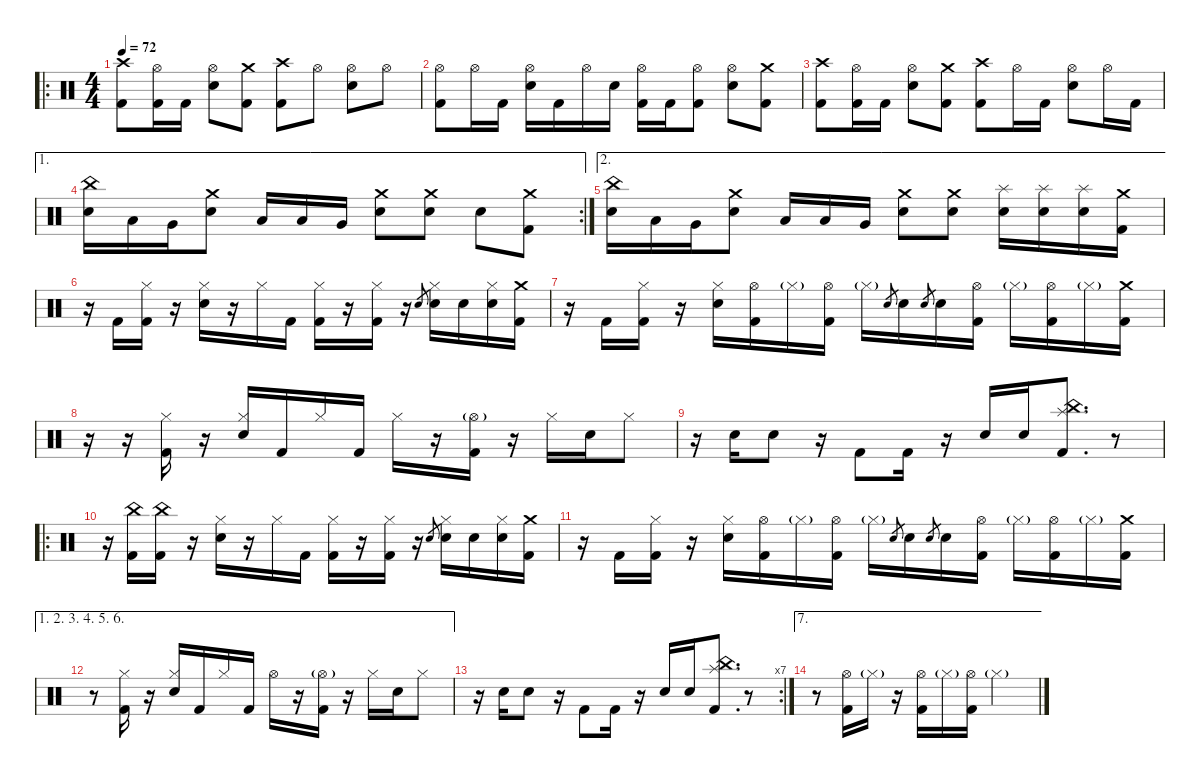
\defaultSystemsLayout 4
\hideDynamics
\bracketExtendMode nobrackets
\singleTrackTrackNamePolicy hidden
\multiTrackTrackNamePolicy hidden
\firstSystemTrackNameMode fullname
\firstSystemTrackNameOrientation horizontal
\otherSystemsTrackNameOrientation horizontal
\track ("Drums" "drm.") {instrument percussion}
\staff {score}
\articulation defaults
\ro
\ts (4 4)
\tempo 72
\clef neutral
\ks c
("Crash high (hit)" "Kick (hit) 2").8{dy f beam Down} ("Hi-Hat (open)" "Kick (hit) 2").16{beam Down} "Kick (hit) 2".16{beam Down} ("Hi-Hat (open)" "Snare (hit) 2").8{beam Down} ("Crash medium (hit)" "Kick (hit) 2").8{beam Down} ("Crash high (hit)" "Kick (hit) 2").8{beam Down} "Hi-Hat (open)".8{beam Down} ("Hi-Hat (open)" "Snare (hit) 2").8{beam Down} "Hi-Hat (open)".8{beam Down} |
("Hi-Hat (open)" "Kick (hit) 2").8{beam Down} "Hi-Hat (open)".16{beam Down} "Kick (hit) 2".16{beam Down} ("Hi-Hat (open)" "Snare (hit) 2").16{beam Down} "Kick (hit) 2".16{beam Down} "Hi-Hat (open)".16{beam Down} "Snare (hit) 2".16{beam Down} ("Hi-Hat (open)" "Kick (hit) 2").16{beam Down} "Kick (hit) 2".16{beam Down} ("Hi-Hat (open)" "Kick (hit) 2").8{beam Down} ("Hi-Hat (open)" "Snare (hit) 2").8{beam Down} ("Crash medium (hit)" "Kick (hit) 2").8{beam Down} |
("Crash high (hit)" "Kick (hit) 2").8{beam Down} ("Hi-Hat (open)" "Kick (hit) 2").16{beam Down} "Kick (hit) 2".16{beam Down} ("Hi-Hat (open)" "Snare (hit) 2").8{beam Down} ("Crash medium (hit)" "Kick (hit) 2").8{beam Down} ("Crash high (hit)" "Kick (hit) 2").8{beam Down} "Hi-Hat (open)".16{beam Down} "Kick (hit) 2".16{beam Down} ("Hi-Hat (open)" "Snare (hit) 2").8{beam Down} "Hi-Hat (open)".16{beam Down} "Kick (hit) 2".16{beam Down} |
\ae 1
\rc 2
("China (hit)" "Snare (hit) 2").16{beam Down} "Low Tom (hit)".16{beam Down} "Very Low Tom (hit)".16{beam Down} ("Crash medium (hit)" "Snare (hit) 2").8{beam Down} "Low Tom (hit)".16{beam Up} "Low Tom (hit)".16{beam Up} "Very Low Tom (hit)".16{beam Up} ("Crash medium (hit)" "Snare (hit) 2").8{beam Down} ("Crash medium (hit)" "Snare (hit) 2").8{beam Down} "Snare (hit) 2".8{beam Down} ("Crash medium (hit)" "Kick (hit) 2").8{beam Down} |
\ae 2
("China (hit)" "Snare (hit) 2").16{beam Down} "Low Tom (hit)".16{beam Down} "Very Low Tom (hit)".16{beam Down} ("Crash medium (hit)" "Snare (hit) 2").8{beam Down} "Low Tom (hit)".16{beam Up} "Low Tom (hit)".16{beam Up} "Very Low Tom (hit)".16{beam Up} ("Crash medium (hit)" "Snare (hit) 2").8{beam Down} ("Crash medium (hit)" "Snare (hit) 2").8{beam Down} ("Splash (hit)" "Snare (hit) 2").16{beam Down} ("Splash (hit)" "Snare (hit) 2").16{beam Down} ("Splash (hit)" "Snare (hit) 2").16{beam Down} ("Crash medium (hit)" "Kick (hit) 2").16{beam Down} |
r.16{beam Down} "Kick (hit) 2".16{beam Down} ("Hi-Hat (closed)" "Kick (hit) 2").16{beam Down} r.16{beam Down} ("Hi-Hat (closed)" "Snare (hit) 2").16{beam Down} r.16{beam Down} "Hi-Hat (closed)".16{beam Down} "Kick (hit) 2".16{beam Down} ("Hi-Hat (closed)" "Kick (hit) 2").16{beam Down} r.16{beam Down} ("Hi-Hat (closed)" "Kick (hit) 2").16{beam Down} r.16{beam Down} "Electric Snare (hit)".8{gr dy pp beam Up} ("Hi-Hat (closed)" "Snare (hit) 2").16{dy f beam Down} "Snare (hit) 2".16{beam Down} ("Hi-Hat (closed)" "Snare (hit) 2").16{beam Down} ("Crash medium (hit)" "Kick (hit) 2").16{beam Down} |
r.16{beam Down} "Kick (hit) 2".16{beam Down} ("Hi-Hat (closed)" "Kick (hit) 2").16{beam Down} r.16{beam Down} ("Hi-Hat (closed)" "Snare (hit) 2").16{beam Down} ("Hi-Hat (open)" "Kick (hit) 2").16{beam Down} "Hi-Hat (closed)"{g}.16{dy mf beam Down} ("Hi-Hat (open)" "Kick (hit) 2").16{dy f beam Down} "Hi-Hat (closed)"{g}.16{dy mf beam Down} "Electric Snare (hit)".8{gr dy p beam Up} "Snare (hit) 2".16{dy f beam Down} "Electric Snare (hit)".8{gr dy pp beam Up} "Snare (hit) 2".16{dy f beam Down} ("Hi-Hat (open)" "Kick (hit) 2").16{beam Down} "Hi-Hat (closed)"{g}.16{dy mf beam Down} ("Hi-Hat (open)" "Kick (hit) 2").16{dy f beam Down} "Hi-Hat (closed)"{g}.16{dy mf beam Down} ("Crash medium (hit)" "Kick (hit) 2").16{dy f beam Down} |
r.16{beam Down} r.16{beam Down} ("Hi-Hat (closed)" "Kick (hit) 2").16{beam Down} r.16{beam Down} ("Hi-Hat (closed)" "Snare (hit) 2").16{beam Up} "Kick (hit) 2".16{beam Up} "Hi-Hat (closed)".16{beam Up} "Kick (hit) 2".16{beam Up} "Hi-Hat (closed)".16{beam Down} r.16{beam Down} ("Hi-Hat (open)"{g} "Kick (hit) 2").16{beam Down} r.16{beam Down} "Hi-Hat (closed)".16{beam Down} "Snare (hit) 2".16{beam Down} "Hi-Hat (closed)".8{beam Down} |
r.16{beam Down} "Snare (hit) 2".16{beam Down} "Snare (hit) 2".8{beam Down} r.16{beam Down} "Kick (hit) 2".8{beam Up} "Kick (hit) 2".16{beam Up} r.16{beam Up} "Snare (hit) 2".16{beam Down} "Snare (hit) 2".16{beam Down} ("China (hit)" "Splash (hit)" "Kick (hit) 2").8{d beam Down} r.8{beam Down} |
\ro
r.16{beam Down} ("China (hit)" "Kick (hit) 2").16{beam Down} ("China (hit)" "Kick (hit) 2").16{beam Down} r.16{beam Down} ("Hi-Hat (closed)" "Snare (hit) 2").16{beam Down} r.16{beam Down} "Hi-Hat (closed)".16{beam Down} "Kick (hit) 2".16{beam Down} ("Hi-Hat (closed)" "Kick (hit) 2").16{beam Down} r.16{beam Down} ("Hi-Hat (closed)" "Kick (hit) 2").16{beam Down} r.16{beam Down} "Electric Snare (hit)".8{gr dy pp beam Up} ("Hi-Hat (closed)" "Snare (hit) 2").16{dy f beam Down} "Snare (hit) 2".16{beam Down} ("Hi-Hat (closed)" "Snare (hit) 2").16{beam Down} ("Crash medium (hit)" "Kick (hit) 2").16{beam Down} |
r.16{beam Down} "Kick (hit) 2".16{beam Down} ("Hi-Hat (closed)" "Kick (hit) 2").16{beam Down} r.16{beam Down} ("Hi-Hat (closed)" "Snare (hit) 2").16{beam Down} ("Hi-Hat (open)" "Kick (hit) 2").16{beam Down} "Hi-Hat (closed)"{g}.16{dy mf beam Down} ("Hi-Hat (open)" "Kick (hit) 2").16{dy f beam Down} "Hi-Hat (closed)"{g}.16{dy mf beam Down} "Electric Snare (hit)".8{gr dy p beam Up} "Snare (hit) 2".16{dy f beam Down} "Electric Snare (hit)".8{gr dy pp beam Up} "Snare (hit) 2".16{dy f beam Down} ("Hi-Hat (open)" "Kick (hit) 2").16{beam Down} "Hi-Hat (closed)"{g}.16{dy mf beam Down} ("Hi-Hat (open)" "Kick (hit) 2").16{dy f beam Down} "Hi-Hat (closed)"{g}.16{dy mf beam Down} ("Crash medium (hit)" "Kick (hit) 2").16{dy f beam Down} |
\ae (1 2 3 4 5 6)
r.8{beam Down} ("Hi-Hat (closed)" "Kick (hit) 2").16{beam Down} r.16{beam Down} ("Hi-Hat (closed)" "Snare (hit) 2").16{beam Up} "Kick (hit) 2".16{beam Up} "Hi-Hat (closed)".16{beam Up} "Kick (hit) 2".16{beam Up} "Hi-Hat (open)".16{beam Down} r.16{beam Down} ("Hi-Hat (open)"{g} "Kick (hit) 2").16{beam Down} r.16{beam Down} "Hi-Hat (closed)".16{beam Down} "Snare (hit) 2".16{beam Down} "Hi-Hat (closed)".8{beam Down} |
\rc 7
r.16{beam Down} "Snare (hit) 2".16{beam Down} "Snare (hit) 2".8{beam Down} r.16{beam Down} "Kick (hit) 2".8{beam Up} "Kick (hit) 2".16{beam Up} r.16{beam Up} "Snare (hit) 2".16{beam Down} "Snare (hit) 2".16{beam Down} ("China (hit)" "Splash (hit)" "Kick (hit) 2").8{d beam Down} r.8{beam Down} |
\ae 7
r.8{beam Down} ("Hi-Hat (open)" "Kick (hit) 2").16{beam Down} "Hi-Hat (closed)"{g}.16{dy mf beam Down} r.16{beam Down} ("Hi-Hat (open)" "Kick (hit) 2").16{dy f beam Down} "Hi-Hat (closed)"{g}.16{dy mf beam Down} ("Hi-Hat (open)" "Kick (hit) 2").16{dy f beam Down} "Hi-Hat (closed)"{g}.2{dy mf beam Down}
